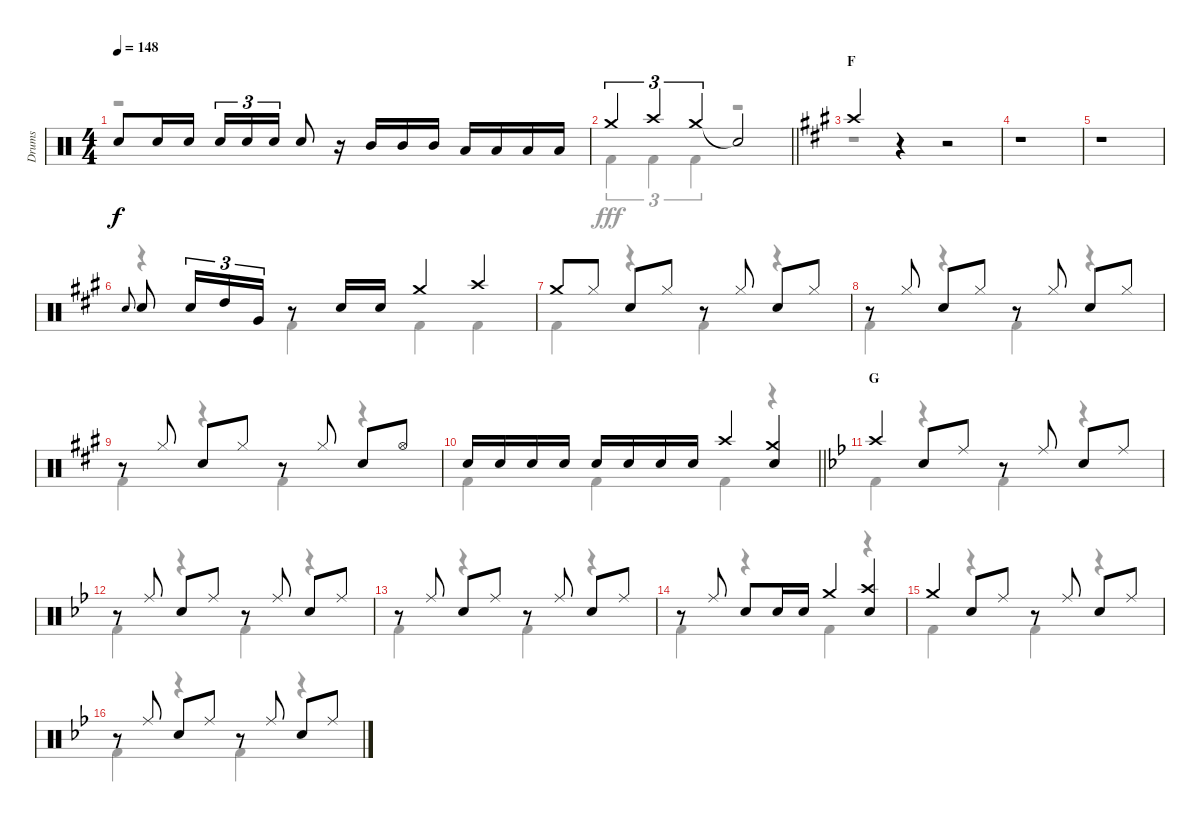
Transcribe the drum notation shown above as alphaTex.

\track ("Drums" "Drums") {instrument percussion}
\staff {score}
\articulation defaults
\voice
\ts (4 4)
\tempo 148
\clef neutral
\ks c "Snare (hit) 2".8{dy f} "Snare (hit) 2".16 "Snare (hit) 2".16 "Snare (hit) 2".16{tu (3 2)} "Snare (hit) 2".16{tu (3 2)} "Snare (hit) 2".16{tu (3 2)} "Snare (hit) 2".8
r.16 "Mid Tom (hit)".16 "Mid Tom (hit)".16 "Mid Tom (hit)".16 "Low Tom (hit)".16 "Low Tom (hit)".16 "Low Tom (hit)".16 "Low Tom (hit)".16 |
\barLineRight lightlight "Crash medium (hit)".4{tu (3 2)} "Crash high (hit)".4{tu (3 2)} "Crash medium (hit)".4{tu (3 2)} "Snare (hit)"{t}.2
|
\section ("" "F")
\ks a "Crash high (hit)".4
r.4 r.2 |
r.1 |
r.1 |
"Snare (hit) 2".8{gr onbeat} "Snare (hit) 2".8 "Snare (hit) 2".16{tu (3 2)} "High Tom (hit)".16{tu (3 2)} "Very Low Tom (hit)".16{tu (3 2)} r.8 "Snare (hit) 2".16 "Snare (hit) 2".16 "Crash medium (hit)".4 "Crash high (hit)".4 |
"Crash medium (hit)".8 "Hi-Hat (closed)".8 "Snare (hit) 2".8 "Hi-Hat (closed)".8 r.8 "Hi-Hat (closed)".8 "Snare (hit) 2".8 "Hi-Hat (closed)".8 |
r.8 "Hi-Hat (closed)".8 "Snare (hit) 2".8 "Hi-Hat (closed)".8 r.8 "Hi-Hat (closed)".8 "Snare (hit) 2".8 "Hi-Hat (closed)".8 |
r.8 "Hi-Hat (closed)".8 "Snare (hit) 2".8 "Hi-Hat (closed)".8 r.8 "Hi-Hat (closed)".8 "Snare (hit) 2".8 "Hi-Hat (open)".8 |
\barLineRight lightlight "Snare (hit) 2".16 "Snare (hit) 2".16 "Snare (hit) 2".16 "Snare (hit) 2".16 "Snare (hit) 2".16 "Snare (hit) 2".16 "Snare (hit) 2".16 "Snare (hit) 2".16 "Crash high (hit)".4
("Crash medium (hit)" "Snare (hit) 2").4 |
\section ("" "G")
\ks bb "Crash high (hit)".4 "Snare (hit) 2".8 "Ride (middle)".8
r.8 "Ride (middle)".8 "Snare (hit) 2".8 "Ride (middle)".8 |
r.8 "Ride (middle)".8 "Snare (hit) 2".8 "Ride (middle)".8 r.8 "Ride (middle)".8 "Snare (hit) 2".8 "Ride (middle)".8 |
r.8 "Ride (middle)".8 "Snare (hit) 2".8 "Ride (middle)".8 r.8 "Ride (middle)".8 "Snare (hit) 2".8 "Ride (middle)".8 |
r.8 "Ride (middle)".8 "Snare (hit) 2".8 "Snare (hit) 2".16 "Snare (hit) 2".16 "Crash medium (hit)".4 ("Crash high (hit)" "Snare (hit) 2").4 |
"Crash medium (hit)".4 "Snare (hit) 2".8 "Ride (middle)".8 r.8 "Ride (middle)".8 "Snare (hit) 2".8 "Ride (middle)".8 |
r.8 "Ride (middle)".8 "Snare (hit) 2".8 "Ride (middle)".8 r.8 "Ride (middle)".8 "Snare (hit) 2".8 "Ride (middle)".8
\voice
\clef neutral
\ottava regular
\simile none
\ks c
r.1{dy fff} |
\barLineRight lightlight "Kick (hit) 2".4{tu (3 2)} "Kick (hit) 2".4{tu (3 2)} "Kick (hit) 2".4{tu (3 2)}
r.2 |
\ks a
r.1 |
r.1 |
r.1 |
r.4 "Kick (hit) 2".4 "Kick (hit) 2".4 "Kick (hit) 2".4 |
"Kick (hit) 2".4 r.4 "Kick (hit) 2".4 r.4 |
"Kick (hit) 2".4 r.4 "Kick (hit) 2".4 r.4 |
"Kick (hit) 2".4 r.4 "Kick (hit) 2".4 r.4 |
\barLineRight lightlight "Kick (hit) 2".4 "Kick (hit) 2".4 "Kick (hit) 2".4
r.4 |
\ks bb "Kick (hit) 2".4
r.4 "Kick (hit) 2".4 r.4 |
"Kick (hit) 2".4 r.4 "Kick (hit) 2".4 r.4 |
"Kick (hit) 2".4 r.4 "Kick (hit) 2".4 r.4 |
"Kick (hit) 2".4 r.4 "Kick (hit) 2".4 r.4 |
"Kick (hit) 2".4 r.4 "Kick (hit) 2".4 r.4 |
"Kick (hit) 2".4 r.4 "Kick (hit) 2".4 r.4
